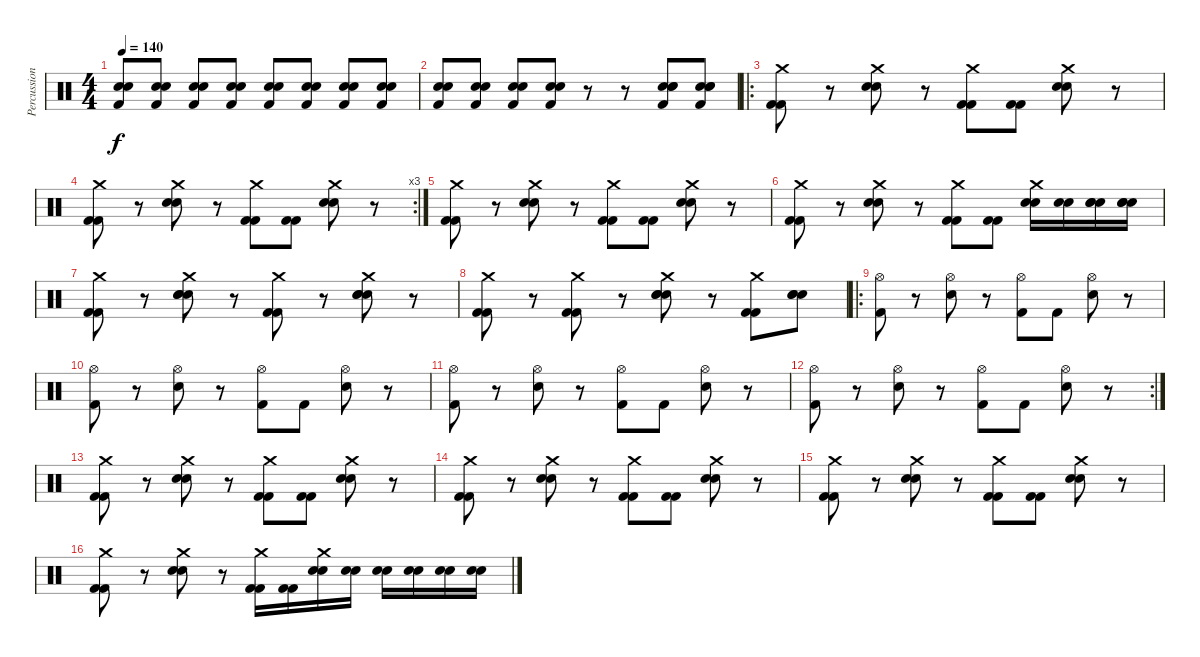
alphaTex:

\track ("Percussions" "Percussion") {instrument percussion}
\staff {score}
\articulation defaults
\ts (4 4)
\tempo 140
\clef neutral
\ks c
("Snare (hit) 2" "Snare (hit) 2" "Kick (hit) 2").8{dy f} ("Snare (hit) 2" "Snare (hit) 2" "Kick (hit) 2").8 ("Snare (hit) 2" "Snare (hit) 2" "Kick (hit) 2").8 ("Snare (hit) 2" "Snare (hit) 2" "Kick (hit) 2").8 ("Snare (hit) 2" "Snare (hit) 2" "Kick (hit) 2").8 ("Snare (hit) 2" "Snare (hit) 2" "Kick (hit) 2").8 ("Snare (hit) 2" "Snare (hit) 2" "Kick (hit) 2").8 ("Snare (hit) 2" "Snare (hit) 2" "Kick (hit) 2").8 |
("Snare (hit) 2" "Snare (hit) 2" "Kick (hit) 2").8 ("Snare (hit) 2" "Snare (hit) 2" "Kick (hit) 2").8 ("Snare (hit) 2" "Snare (hit) 2" "Kick (hit) 2").8 ("Snare (hit) 2" "Snare (hit) 2" "Kick (hit) 2").8 r.8 r.8 ("Snare (hit) 2" "Snare (hit) 2" "Snare (hit) 2" "Kick (hit) 2").8 ("Snare (hit) 2" "Snare (hit) 2" "Snare (hit) 2" "Kick (hit) 2").8 |
\ro
("Crash medium (hit)" "Kick (hit) 2" "Kick (hit) 2").8 r.8 ("Crash medium (hit)" "Snare (hit) 2" "Snare (hit) 2").8 r.8 ("Crash medium (hit)" "Kick (hit) 2" "Kick (hit) 2").8 ("Kick (hit) 2" "Kick (hit) 2").8 ("Crash medium (hit)" "Snare (hit) 2" "Snare (hit) 2").8 r.8 |
\rc 3
("Crash medium (hit)" "Kick (hit) 2" "Kick (hit) 2").8 r.8 ("Crash medium (hit)" "Snare (hit) 2" "Snare (hit) 2").8 r.8 ("Crash medium (hit)" "Kick (hit) 2" "Kick (hit) 2").8 ("Kick (hit) 2" "Kick (hit) 2").8 ("Crash medium (hit)" "Snare (hit) 2" "Snare (hit) 2").8 r.8 |
("Crash medium (hit)" "Kick (hit) 2" "Kick (hit) 2").8 r.8 ("Crash medium (hit)" "Snare (hit) 2" "Snare (hit) 2").8 r.8 ("Crash medium (hit)" "Kick (hit) 2" "Kick (hit) 2").8 ("Kick (hit) 2" "Kick (hit) 2").8 ("Crash medium (hit)" "Snare (hit) 2" "Snare (hit) 2").8 r.8 |
("Crash medium (hit)" "Kick (hit) 2" "Kick (hit) 2").8 r.8 ("Crash medium (hit)" "Snare (hit) 2" "Snare (hit) 2").8 r.8 ("Crash medium (hit)" "Kick (hit) 2" "Kick (hit) 2").8 ("Kick (hit) 2" "Kick (hit) 2").8 ("Crash medium (hit)" "Snare (hit) 2" "Snare (hit) 2").16 ("Snare (hit) 2" "Snare (hit) 2").16 ("Snare (hit) 2" "Snare (hit) 2" "Snare (hit) 2").16 ("Snare (hit) 2" "Snare (hit) 2" "Snare (hit) 2").16 |
("Crash medium (hit)" "Kick (hit) 2" "Kick (hit) 2").8 r.8 ("Crash medium (hit)" "Snare (hit) 2" "Snare (hit) 2" "Snare (hit) 2").8 r.8 ("Crash medium (hit)" "Kick (hit) 2" "Kick (hit) 2").8 r.8 ("Crash medium (hit)" "Snare (hit) 2" "Snare (hit) 2" "Snare (hit) 2").8 r.8 |
("Crash medium (hit)" "Kick (hit) 2" "Kick (hit) 2").8 r.8 ("Crash medium (hit)" "Kick (hit) 2" "Kick (hit) 2").8 r.8 ("Crash medium (hit)" "Snare (hit) 2" "Snare (hit) 2" "Snare (hit) 2").8 r.8 ("Crash medium (hit)" "Kick (hit) 2" "Kick (hit) 2").8 ("Snare (hit) 2" "Snare (hit) 2" "Snare (hit) 2").8 |
\ro
("Hi-Hat (open)" "Kick (hit) 2").8 r.8 ("Hi-Hat (open)" "Snare (hit) 2").8 r.8 ("Hi-Hat (open)" "Kick (hit) 2").8 "Kick (hit) 2".8 ("Hi-Hat (open)" "Snare (hit) 2").8 r.8 |
("Hi-Hat (open)" "Kick (hit) 2").8 r.8 ("Hi-Hat (open)" "Snare (hit) 2").8 r.8 ("Hi-Hat (open)" "Kick (hit) 2").8 "Kick (hit) 2".8 ("Hi-Hat (open)" "Snare (hit) 2").8 r.8 |
("Hi-Hat (open)" "Kick (hit) 2").8 r.8 ("Hi-Hat (open)" "Snare (hit) 2").8 r.8 ("Hi-Hat (open)" "Kick (hit) 2").8 "Kick (hit) 2".8 ("Hi-Hat (open)" "Snare (hit) 2").8 r.8 |
\rc 2
("Hi-Hat (open)" "Kick (hit) 2").8 r.8 ("Hi-Hat (open)" "Snare (hit) 2").8 r.8 ("Hi-Hat (open)" "Kick (hit) 2").8 "Kick (hit) 2".8 ("Hi-Hat (open)" "Snare (hit) 2").8 r.8 |
("Crash medium (hit)" "Kick (hit) 2" "Kick (hit) 2").8 r.8 ("Crash medium (hit)" "Snare (hit) 2" "Snare (hit) 2").8 r.8 ("Crash medium (hit)" "Kick (hit) 2" "Kick (hit) 2").8 ("Kick (hit) 2" "Kick (hit) 2").8 ("Crash medium (hit)" "Snare (hit) 2" "Snare (hit) 2").8 r.8 |
("Crash medium (hit)" "Kick (hit) 2" "Kick (hit) 2").8 r.8 ("Crash medium (hit)" "Snare (hit) 2" "Snare (hit) 2").8 r.8 ("Crash medium (hit)" "Kick (hit) 2" "Kick (hit) 2").8 ("Kick (hit) 2" "Kick (hit) 2").8 ("Crash medium (hit)" "Snare (hit) 2" "Snare (hit) 2").8 r.8 |
("Crash medium (hit)" "Kick (hit) 2" "Kick (hit) 2").8 r.8 ("Crash medium (hit)" "Snare (hit) 2" "Snare (hit) 2").8 r.8 ("Crash medium (hit)" "Kick (hit) 2" "Kick (hit) 2").8 ("Kick (hit) 2" "Kick (hit) 2").8 ("Crash medium (hit)" "Snare (hit) 2" "Snare (hit) 2").8 r.8 |
("Crash medium (hit)" "Kick (hit) 2" "Kick (hit) 2").8 r.8 ("Crash medium (hit)" "Snare (hit) 2" "Snare (hit) 2").8 r.8 ("Crash medium (hit)" "Kick (hit) 2" "Kick (hit) 2").16 ("Kick (hit) 2" "Kick (hit) 2").16 ("Crash medium (hit)" "Snare (hit) 2" "Snare (hit) 2").16 ("Snare (hit) 2" "Snare (hit) 2").16 ("Snare (hit) 2" "Snare (hit) 2").16 ("Snare (hit) 2" "Snare (hit) 2").16 ("Snare (hit) 2" "Snare (hit) 2").16 ("Snare (hit) 2" "Snare (hit) 2").16
